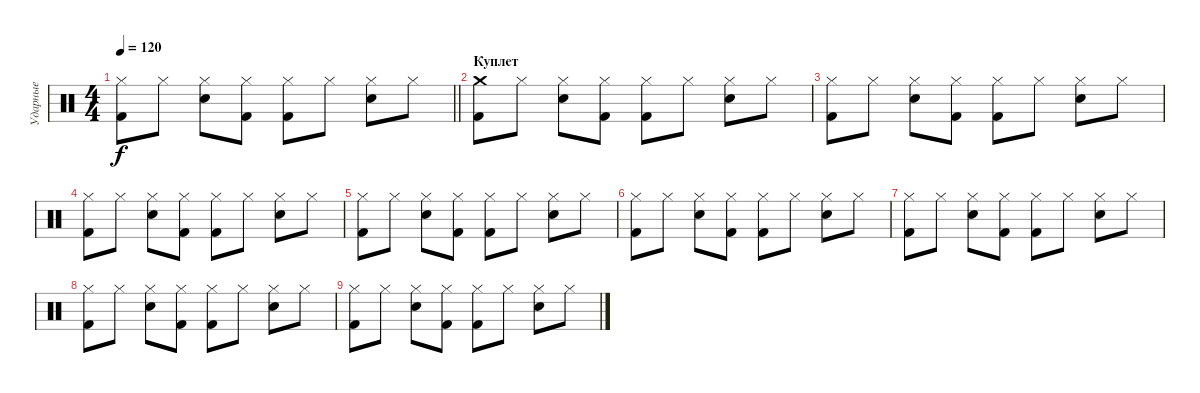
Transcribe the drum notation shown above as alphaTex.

\track ("Ударные" "Ударные") {instrument percussion}
\staff {score}
\articulation defaults
\ts (4 4)
\tempo 120
\clef neutral
\barLineRight lightlight
\ks c
("Hi-Hat (closed)" "Kick (hit) 2").8{dy f} "Hi-Hat (closed)".8 ("Hi-Hat (closed)" "Snare (hit) 2").8 ("Hi-Hat (closed)" "Kick (hit) 2").8 ("Hi-Hat (closed)" "Kick (hit) 2").8 "Hi-Hat (closed)".8 ("Hi-Hat (closed)" "Snare (hit) 2").8 "Hi-Hat (closed)".8 |
\section ("" "Куплет")
("Crash medium (hit)" "Kick (hit) 2").8 "Hi-Hat (closed)".8 ("Hi-Hat (closed)" "Snare (hit) 2").8 ("Hi-Hat (closed)" "Kick (hit) 2").8 ("Hi-Hat (closed)" "Kick (hit) 2").8 "Hi-Hat (closed)".8 ("Hi-Hat (closed)" "Snare (hit) 2").8 "Hi-Hat (closed)".8 |
("Hi-Hat (closed)" "Kick (hit) 2").8 "Hi-Hat (closed)".8 ("Hi-Hat (closed)" "Snare (hit) 2").8 ("Hi-Hat (closed)" "Kick (hit) 2").8 ("Hi-Hat (closed)" "Kick (hit) 2").8 "Hi-Hat (closed)".8 ("Hi-Hat (closed)" "Snare (hit) 2").8 "Hi-Hat (closed)".8 |
("Hi-Hat (closed)" "Kick (hit) 2").8 "Hi-Hat (closed)".8 ("Hi-Hat (closed)" "Snare (hit) 2").8 ("Hi-Hat (closed)" "Kick (hit) 2").8 ("Hi-Hat (closed)" "Kick (hit) 2").8 "Hi-Hat (closed)".8 ("Hi-Hat (closed)" "Snare (hit) 2").8 "Hi-Hat (closed)".8 |
("Hi-Hat (closed)" "Kick (hit) 2").8 "Hi-Hat (closed)".8 ("Hi-Hat (closed)" "Snare (hit) 2").8 ("Hi-Hat (closed)" "Kick (hit) 2").8 ("Hi-Hat (closed)" "Kick (hit) 2").8 "Hi-Hat (closed)".8 ("Hi-Hat (closed)" "Snare (hit) 2").8 "Hi-Hat (closed)".8 |
("Hi-Hat (closed)" "Kick (hit) 2").8 "Hi-Hat (closed)".8 ("Hi-Hat (closed)" "Snare (hit) 2").8 ("Hi-Hat (closed)" "Kick (hit) 2").8 ("Hi-Hat (closed)" "Kick (hit) 2").8 "Hi-Hat (closed)".8 ("Hi-Hat (closed)" "Snare (hit) 2").8 "Hi-Hat (closed)".8 |
("Hi-Hat (closed)" "Kick (hit) 2").8 "Hi-Hat (closed)".8 ("Hi-Hat (closed)" "Snare (hit) 2").8 ("Hi-Hat (closed)" "Kick (hit) 2").8 ("Hi-Hat (closed)" "Kick (hit) 2").8 "Hi-Hat (closed)".8 ("Hi-Hat (closed)" "Snare (hit) 2").8 "Hi-Hat (closed)".8 |
("Hi-Hat (closed)" "Kick (hit) 2").8 "Hi-Hat (closed)".8 ("Hi-Hat (closed)" "Snare (hit) 2").8 ("Hi-Hat (closed)" "Kick (hit) 2").8 ("Hi-Hat (closed)" "Kick (hit) 2").8 "Hi-Hat (closed)".8 ("Hi-Hat (closed)" "Snare (hit) 2").8 "Hi-Hat (closed)".8 |
("Hi-Hat (closed)" "Kick (hit) 2").8 "Hi-Hat (closed)".8 ("Hi-Hat (closed)" "Snare (hit) 2").8 ("Hi-Hat (closed)" "Kick (hit) 2").8 ("Hi-Hat (closed)" "Kick (hit) 2").8 "Hi-Hat (closed)".8 ("Hi-Hat (closed)" "Snare (hit) 2").8 "Hi-Hat (closed)".8
